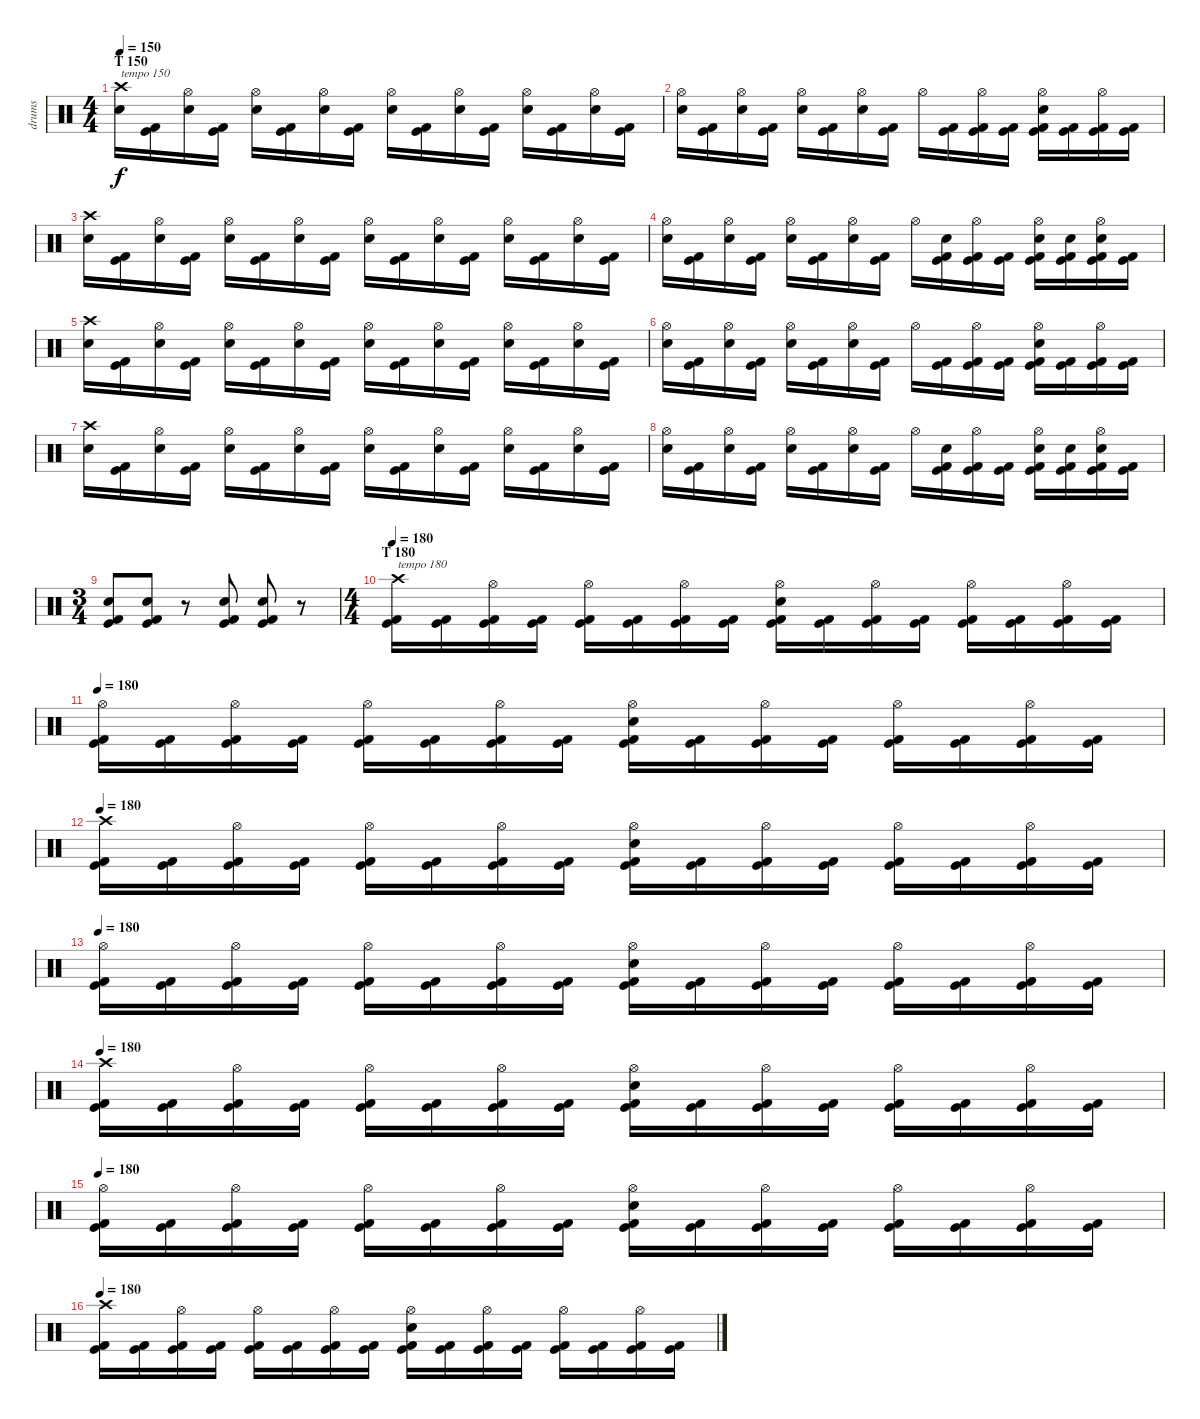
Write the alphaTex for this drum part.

\track ("drums" "drums") {instrument percussion}
\staff {score}
\articulation defaults
\ts (4 4)
\section ("" "T 150")
\tempo 150
\clef neutral
\ks c
("Crash high (hit)" "Electric Snare (hit)").16{txt "tempo 150" dy f} ("Kick (hit) 2" "Kick (hit)").16 ("Hi-Hat (open)" "Electric Snare (hit)").16 ("Kick (hit) 2" "Kick (hit)").16 ("Hi-Hat (open)" "Electric Snare (hit)").16 ("Kick (hit) 2" "Kick (hit)").16 ("Hi-Hat (open)" "Electric Snare (hit)").16 ("Kick (hit) 2" "Kick (hit)").16 ("Hi-Hat (open)" "Electric Snare (hit)").16 ("Kick (hit) 2" "Kick (hit)").16 ("Hi-Hat (open)" "Electric Snare (hit)").16 ("Kick (hit) 2" "Kick (hit)").16 ("Hi-Hat (open)" "Electric Snare (hit)").16 ("Kick (hit) 2" "Kick (hit)").16 ("Hi-Hat (open)" "Electric Snare (hit)").16 ("Kick (hit) 2" "Kick (hit)").16 |
("Hi-Hat (open)" "Electric Snare (hit)").16 ("Kick (hit) 2" "Kick (hit)").16 ("Hi-Hat (open)" "Electric Snare (hit)").16 ("Kick (hit) 2" "Kick (hit)").16 ("Hi-Hat (open)" "Electric Snare (hit)").16 ("Kick (hit) 2" "Kick (hit)").16 ("Hi-Hat (open)" "Electric Snare (hit)").16 ("Kick (hit) 2" "Kick (hit)").16 "Hi-Hat (open)".16 ("Kick (hit) 2" "Kick (hit)").16 ("Hi-Hat (open)" "Kick (hit) 2" "Kick (hit)").16 ("Kick (hit) 2" "Kick (hit)").16 ("Hi-Hat (open)" "Electric Snare (hit)" "Kick (hit) 2" "Kick (hit)").16 ("Kick (hit) 2" "Kick (hit)").16 ("Hi-Hat (open)" "Kick (hit) 2" "Kick (hit)").16 ("Kick (hit) 2" "Kick (hit)").16 |
("Crash high (hit)" "Electric Snare (hit)").16 ("Kick (hit) 2" "Kick (hit)").16 ("Hi-Hat (open)" "Electric Snare (hit)").16 ("Kick (hit) 2" "Kick (hit)").16 ("Hi-Hat (open)" "Electric Snare (hit)").16 ("Kick (hit) 2" "Kick (hit)").16 ("Hi-Hat (open)" "Electric Snare (hit)").16 ("Kick (hit) 2" "Kick (hit)").16 ("Hi-Hat (open)" "Electric Snare (hit)").16 ("Kick (hit) 2" "Kick (hit)").16 ("Hi-Hat (open)" "Electric Snare (hit)").16 ("Kick (hit) 2" "Kick (hit)").16 ("Hi-Hat (open)" "Electric Snare (hit)").16 ("Kick (hit) 2" "Kick (hit)").16 ("Hi-Hat (open)" "Electric Snare (hit)").16 ("Kick (hit) 2" "Kick (hit)").16 |
("Hi-Hat (open)" "Electric Snare (hit)").16 ("Kick (hit) 2" "Kick (hit)").16 ("Hi-Hat (open)" "Electric Snare (hit)").16 ("Kick (hit) 2" "Kick (hit)").16 ("Hi-Hat (open)" "Electric Snare (hit)").16 ("Kick (hit) 2" "Kick (hit)").16 ("Hi-Hat (open)" "Electric Snare (hit)").16 ("Kick (hit) 2" "Kick (hit)").16 "Hi-Hat (open)".16 ("Electric Snare (hit)" "Kick (hit) 2" "Kick (hit)").16 ("Hi-Hat (open)" "Kick (hit) 2" "Kick (hit)").16 ("Kick (hit) 2" "Kick (hit)").16 ("Hi-Hat (open)" "Electric Snare (hit)" "Kick (hit) 2" "Kick (hit)").16 ("Electric Snare (hit)" "Kick (hit) 2" "Kick (hit)").16 ("Hi-Hat (open)" "Electric Snare (hit)" "Kick (hit) 2" "Kick (hit)").16 ("Kick (hit) 2" "Kick (hit)").16 |
("Crash high (hit)" "Electric Snare (hit)").16 ("Kick (hit) 2" "Kick (hit)").16 ("Hi-Hat (open)" "Electric Snare (hit)").16 ("Kick (hit) 2" "Kick (hit)").16 ("Hi-Hat (open)" "Electric Snare (hit)").16 ("Kick (hit) 2" "Kick (hit)").16 ("Hi-Hat (open)" "Electric Snare (hit)").16 ("Kick (hit) 2" "Kick (hit)").16 ("Hi-Hat (open)" "Electric Snare (hit)").16 ("Kick (hit) 2" "Kick (hit)").16 ("Hi-Hat (open)" "Electric Snare (hit)").16 ("Kick (hit) 2" "Kick (hit)").16 ("Hi-Hat (open)" "Electric Snare (hit)").16 ("Kick (hit) 2" "Kick (hit)").16 ("Hi-Hat (open)" "Electric Snare (hit)").16 ("Kick (hit) 2" "Kick (hit)").16 |
("Hi-Hat (open)" "Electric Snare (hit)").16 ("Kick (hit) 2" "Kick (hit)").16 ("Hi-Hat (open)" "Electric Snare (hit)").16 ("Kick (hit) 2" "Kick (hit)").16 ("Hi-Hat (open)" "Electric Snare (hit)").16 ("Kick (hit) 2" "Kick (hit)").16 ("Hi-Hat (open)" "Electric Snare (hit)").16 ("Kick (hit) 2" "Kick (hit)").16 "Hi-Hat (open)".16 ("Kick (hit) 2" "Kick (hit)").16 ("Hi-Hat (open)" "Kick (hit) 2" "Kick (hit)").16 ("Kick (hit) 2" "Kick (hit)").16 ("Hi-Hat (open)" "Electric Snare (hit)" "Kick (hit) 2" "Kick (hit)").16 ("Kick (hit) 2" "Kick (hit)").16 ("Hi-Hat (open)" "Kick (hit) 2" "Kick (hit)").16 ("Kick (hit) 2" "Kick (hit)").16 |
("Crash high (hit)" "Electric Snare (hit)").16 ("Kick (hit) 2" "Kick (hit)").16 ("Hi-Hat (open)" "Electric Snare (hit)").16 ("Kick (hit) 2" "Kick (hit)").16 ("Hi-Hat (open)" "Electric Snare (hit)").16 ("Kick (hit) 2" "Kick (hit)").16 ("Hi-Hat (open)" "Electric Snare (hit)").16 ("Kick (hit) 2" "Kick (hit)").16 ("Hi-Hat (open)" "Electric Snare (hit)").16 ("Kick (hit) 2" "Kick (hit)").16 ("Hi-Hat (open)" "Electric Snare (hit)").16 ("Kick (hit) 2" "Kick (hit)").16 ("Hi-Hat (open)" "Electric Snare (hit)").16 ("Kick (hit) 2" "Kick (hit)").16 ("Hi-Hat (open)" "Electric Snare (hit)").16 ("Kick (hit) 2" "Kick (hit)").16 |
("Hi-Hat (open)" "Electric Snare (hit)").16 ("Kick (hit) 2" "Kick (hit)").16 ("Hi-Hat (open)" "Electric Snare (hit)").16 ("Kick (hit) 2" "Kick (hit)").16 ("Hi-Hat (open)" "Electric Snare (hit)").16 ("Kick (hit) 2" "Kick (hit)").16 ("Hi-Hat (open)" "Electric Snare (hit)").16 ("Kick (hit) 2" "Kick (hit)").16 "Hi-Hat (open)".16 ("Electric Snare (hit)" "Kick (hit) 2" "Kick (hit)").16 ("Hi-Hat (open)" "Kick (hit) 2" "Kick (hit)").16 ("Kick (hit) 2" "Kick (hit)").16 ("Hi-Hat (open)" "Electric Snare (hit)" "Kick (hit) 2" "Kick (hit)").16 ("Electric Snare (hit)" "Kick (hit) 2" "Kick (hit)").16 ("Hi-Hat (open)" "Electric Snare (hit)" "Kick (hit) 2" "Kick (hit)").16 ("Kick (hit) 2" "Kick (hit)").16 |
\ts (3 4)
("Electric Snare (hit)" "Kick (hit) 2" "Kick (hit)").8 ("Electric Snare (hit)" "Kick (hit) 2" "Kick (hit)").8 r.8 ("Electric Snare (hit)" "Kick (hit) 2" "Kick (hit)").8 ("Electric Snare (hit)" "Kick (hit) 2" "Kick (hit)").8 r.8 |
\ts (4 4)
\section ("" "T 180")
\tempo 180
("Crash high (hit)" "Kick (hit) 2" "Kick (hit)").16{txt "tempo 180"} ("Kick (hit) 2" "Kick (hit)").16 ("Hi-Hat (open)" "Kick (hit) 2" "Kick (hit)").16 ("Kick (hit) 2" "Kick (hit)").16 ("Hi-Hat (open)" "Kick (hit) 2" "Kick (hit)").16 ("Kick (hit) 2" "Kick (hit)").16 ("Hi-Hat (open)" "Kick (hit) 2" "Kick (hit)").16 ("Kick (hit) 2" "Kick (hit)").16 ("Electric Snare (hit)" "Hi-Hat (open)" "Kick (hit) 2" "Kick (hit)").16 ("Kick (hit) 2" "Kick (hit)").16 ("Hi-Hat (open)" "Kick (hit) 2" "Kick (hit)").16 ("Kick (hit) 2" "Kick (hit)").16 ("Hi-Hat (open)" "Kick (hit) 2" "Kick (hit)").16 ("Kick (hit) 2" "Kick (hit)").16 ("Hi-Hat (open)" "Kick (hit) 2" "Kick (hit)").16 ("Kick (hit) 2" "Kick (hit)").16 |
\tempo 180
("Hi-Hat (open)" "Kick (hit) 2" "Kick (hit)").16 ("Kick (hit) 2" "Kick (hit)").16 ("Hi-Hat (open)" "Kick (hit) 2" "Kick (hit)").16 ("Kick (hit) 2" "Kick (hit)").16 ("Hi-Hat (open)" "Kick (hit) 2" "Kick (hit)").16 ("Kick (hit) 2" "Kick (hit)").16 ("Hi-Hat (open)" "Kick (hit) 2" "Kick (hit)").16 ("Kick (hit) 2" "Kick (hit)").16 ("Electric Snare (hit)" "Hi-Hat (open)" "Kick (hit) 2" "Kick (hit)").16 ("Kick (hit) 2" "Kick (hit)").16 ("Hi-Hat (open)" "Kick (hit) 2" "Kick (hit)").16 ("Kick (hit) 2" "Kick (hit)").16 ("Hi-Hat (open)" "Kick (hit) 2" "Kick (hit)").16 ("Kick (hit) 2" "Kick (hit)").16 ("Hi-Hat (open)" "Kick (hit) 2" "Kick (hit)").16 ("Kick (hit) 2" "Kick (hit)").16 |
\tempo 180
("Crash high (hit)" "Kick (hit) 2" "Kick (hit)").16 ("Kick (hit) 2" "Kick (hit)").16 ("Hi-Hat (open)" "Kick (hit) 2" "Kick (hit)").16 ("Kick (hit) 2" "Kick (hit)").16 ("Hi-Hat (open)" "Kick (hit) 2" "Kick (hit)").16 ("Kick (hit) 2" "Kick (hit)").16 ("Hi-Hat (open)" "Kick (hit) 2" "Kick (hit)").16 ("Kick (hit) 2" "Kick (hit)").16 ("Electric Snare (hit)" "Hi-Hat (open)" "Kick (hit) 2" "Kick (hit)").16 ("Kick (hit) 2" "Kick (hit)").16 ("Hi-Hat (open)" "Kick (hit) 2" "Kick (hit)").16 ("Kick (hit) 2" "Kick (hit)").16 ("Hi-Hat (open)" "Kick (hit) 2" "Kick (hit)").16 ("Kick (hit) 2" "Kick (hit)").16 ("Hi-Hat (open)" "Kick (hit) 2" "Kick (hit)").16 ("Kick (hit) 2" "Kick (hit)").16 |
\tempo 180
("Hi-Hat (open)" "Kick (hit) 2" "Kick (hit)").16 ("Kick (hit) 2" "Kick (hit)").16 ("Hi-Hat (open)" "Kick (hit) 2" "Kick (hit)").16 ("Kick (hit) 2" "Kick (hit)").16 ("Hi-Hat (open)" "Kick (hit) 2" "Kick (hit)").16 ("Kick (hit) 2" "Kick (hit)").16 ("Hi-Hat (open)" "Kick (hit) 2" "Kick (hit)").16 ("Kick (hit) 2" "Kick (hit)").16 ("Electric Snare (hit)" "Hi-Hat (open)" "Kick (hit) 2" "Kick (hit)").16 ("Kick (hit) 2" "Kick (hit)").16 ("Hi-Hat (open)" "Kick (hit) 2" "Kick (hit)").16 ("Kick (hit) 2" "Kick (hit)").16 ("Hi-Hat (open)" "Kick (hit) 2" "Kick (hit)").16 ("Kick (hit) 2" "Kick (hit)").16 ("Hi-Hat (open)" "Kick (hit) 2" "Kick (hit)").16 ("Kick (hit) 2" "Kick (hit)").16 |
\tempo 180
("Crash high (hit)" "Kick (hit) 2" "Kick (hit)").16 ("Kick (hit) 2" "Kick (hit)").16 ("Hi-Hat (open)" "Kick (hit) 2" "Kick (hit)").16 ("Kick (hit) 2" "Kick (hit)").16 ("Hi-Hat (open)" "Kick (hit) 2" "Kick (hit)").16 ("Kick (hit) 2" "Kick (hit)").16 ("Hi-Hat (open)" "Kick (hit) 2" "Kick (hit)").16 ("Kick (hit) 2" "Kick (hit)").16 ("Electric Snare (hit)" "Hi-Hat (open)" "Kick (hit) 2" "Kick (hit)").16 ("Kick (hit) 2" "Kick (hit)").16 ("Hi-Hat (open)" "Kick (hit) 2" "Kick (hit)").16 ("Kick (hit) 2" "Kick (hit)").16 ("Hi-Hat (open)" "Kick (hit) 2" "Kick (hit)").16 ("Kick (hit) 2" "Kick (hit)").16 ("Hi-Hat (open)" "Kick (hit) 2" "Kick (hit)").16 ("Kick (hit) 2" "Kick (hit)").16 |
\tempo 180
("Hi-Hat (open)" "Kick (hit) 2" "Kick (hit)").16 ("Kick (hit) 2" "Kick (hit)").16 ("Hi-Hat (open)" "Kick (hit) 2" "Kick (hit)").16 ("Kick (hit) 2" "Kick (hit)").16 ("Hi-Hat (open)" "Kick (hit) 2" "Kick (hit)").16 ("Kick (hit) 2" "Kick (hit)").16 ("Hi-Hat (open)" "Kick (hit) 2" "Kick (hit)").16 ("Kick (hit) 2" "Kick (hit)").16 ("Electric Snare (hit)" "Hi-Hat (open)" "Kick (hit) 2" "Kick (hit)").16 ("Kick (hit) 2" "Kick (hit)").16 ("Hi-Hat (open)" "Kick (hit) 2" "Kick (hit)").16 ("Kick (hit) 2" "Kick (hit)").16 ("Hi-Hat (open)" "Kick (hit) 2" "Kick (hit)").16 ("Kick (hit) 2" "Kick (hit)").16 ("Hi-Hat (open)" "Kick (hit) 2" "Kick (hit)").16 ("Kick (hit) 2" "Kick (hit)").16 |
\tempo 180
("Crash high (hit)" "Kick (hit) 2" "Kick (hit)").16 ("Kick (hit) 2" "Kick (hit)").16 ("Hi-Hat (open)" "Kick (hit) 2" "Kick (hit)").16 ("Kick (hit) 2" "Kick (hit)").16 ("Hi-Hat (open)" "Kick (hit) 2" "Kick (hit)").16 ("Kick (hit) 2" "Kick (hit)").16 ("Hi-Hat (open)" "Kick (hit) 2" "Kick (hit)").16 ("Kick (hit) 2" "Kick (hit)").16 ("Electric Snare (hit)" "Hi-Hat (open)" "Kick (hit) 2" "Kick (hit)").16 ("Kick (hit) 2" "Kick (hit)").16 ("Hi-Hat (open)" "Kick (hit) 2" "Kick (hit)").16 ("Kick (hit) 2" "Kick (hit)").16 ("Hi-Hat (open)" "Kick (hit) 2" "Kick (hit)").16 ("Kick (hit) 2" "Kick (hit)").16 ("Hi-Hat (open)" "Kick (hit) 2" "Kick (hit)").16 ("Kick (hit) 2" "Kick (hit)").16
